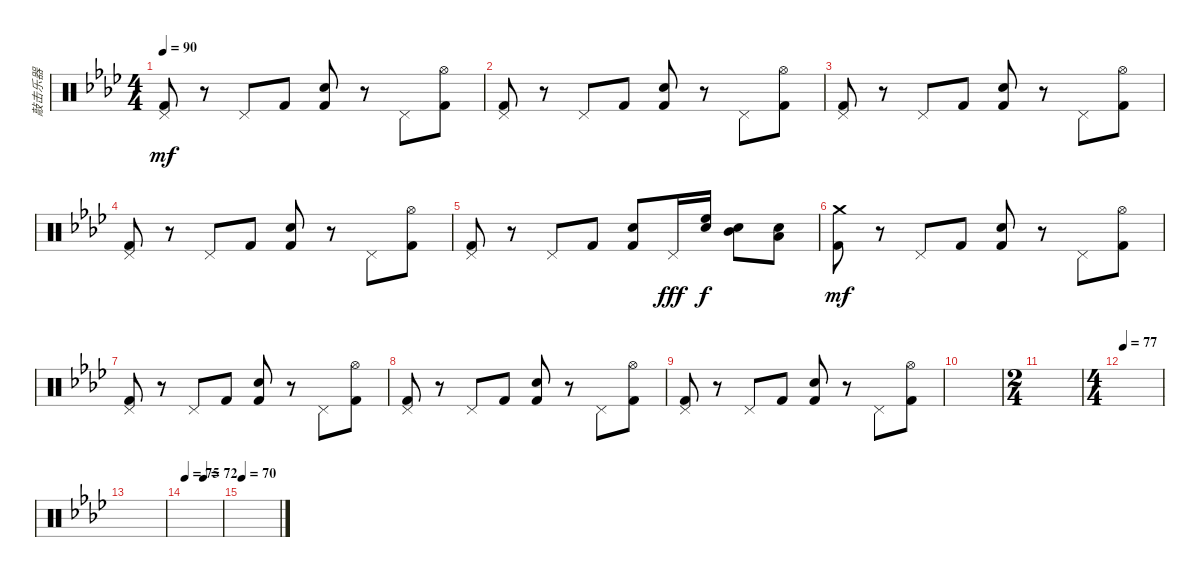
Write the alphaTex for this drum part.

\track ("敲击乐器" "敲击乐器") {instrument percussion}
\staff {score}
\articulation defaults
\ts (4 4)
\tempo 90
\clef neutral
\ks ab
("Pedal Hi-Hat (hit)" "Kick (hit) 2").8{dy mf} r.8 "Pedal Hi-Hat (hit)".8 "Kick (hit) 2".8 ("Snare (hit) 2" "Kick (hit) 2").8 r.8 "Pedal Hi-Hat (hit)".8 ("Hi-Hat (open)" "Kick (hit) 2").8 |
("Pedal Hi-Hat (hit)" "Kick (hit) 2").8 r.8 "Pedal Hi-Hat (hit)".8 "Kick (hit) 2".8 ("Snare (hit) 2" "Kick (hit) 2").8 r.8 "Pedal Hi-Hat (hit)".8 ("Hi-Hat (open)" "Kick (hit) 2").8 |
("Pedal Hi-Hat (hit)" "Kick (hit) 2").8 r.8 "Pedal Hi-Hat (hit)".8 "Kick (hit) 2".8 ("Snare (hit) 2" "Kick (hit) 2").8 r.8 "Pedal Hi-Hat (hit)".8 ("Hi-Hat (open)" "Kick (hit) 2").8 |
("Pedal Hi-Hat (hit)" "Kick (hit) 2").8 r.8 "Pedal Hi-Hat (hit)".8 "Kick (hit) 2".8 ("Snare (hit) 2" "Kick (hit) 2").8 r.8 "Pedal Hi-Hat (hit)".8 ("Hi-Hat (open)" "Kick (hit) 2").8 |
("Pedal Hi-Hat (hit)" "Kick (hit) 2").8 r.8 "Pedal Hi-Hat (hit)".8 "Kick (hit) 2".8 ("Snare (hit) 2" "Kick (hit) 2").8 "Pedal Hi-Hat (hit)".16{dy fff} ("High Floor Tom (hit)" "Electric Snare (hit)").16{dy f} ("Mid Tom (hit)" "Snare (hit) 2").8 ("Low Tom (hit)" "Snare (hit) 2").8 |
("Crash medium (hit)" "Kick (hit) 2").8{dy mf} r.8 "Pedal Hi-Hat (hit)".8 "Kick (hit) 2".8 ("Snare (hit) 2" "Kick (hit) 2").8 r.8 "Pedal Hi-Hat (hit)".8 ("Hi-Hat (open)" "Kick (hit) 2").8 |
("Pedal Hi-Hat (hit)" "Kick (hit) 2").8 r.8 "Pedal Hi-Hat (hit)".8 "Kick (hit) 2".8 ("Snare (hit) 2" "Kick (hit) 2").8 r.8 "Pedal Hi-Hat (hit)".8 ("Hi-Hat (open)" "Kick (hit) 2").8 |
("Pedal Hi-Hat (hit)" "Kick (hit) 2").8 r.8 "Pedal Hi-Hat (hit)".8 "Kick (hit) 2".8 ("Snare (hit) 2" "Kick (hit) 2").8 r.8 "Pedal Hi-Hat (hit)".8 ("Hi-Hat (open)" "Kick (hit) 2").8 |
("Pedal Hi-Hat (hit)" "Kick (hit) 2").8 r.8 "Pedal Hi-Hat (hit)".8 "Kick (hit) 2".8 ("Snare (hit) 2" "Kick (hit) 2").8 r.8 "Pedal Hi-Hat (hit)".8 ("Hi-Hat (open)" "Kick (hit) 2").8 |
|
\ts (2 4)
|
\ts (4 4)
\tempo 77
|
|
\tempo 75
\tempo (72 0.5)
|
\tempo 70
